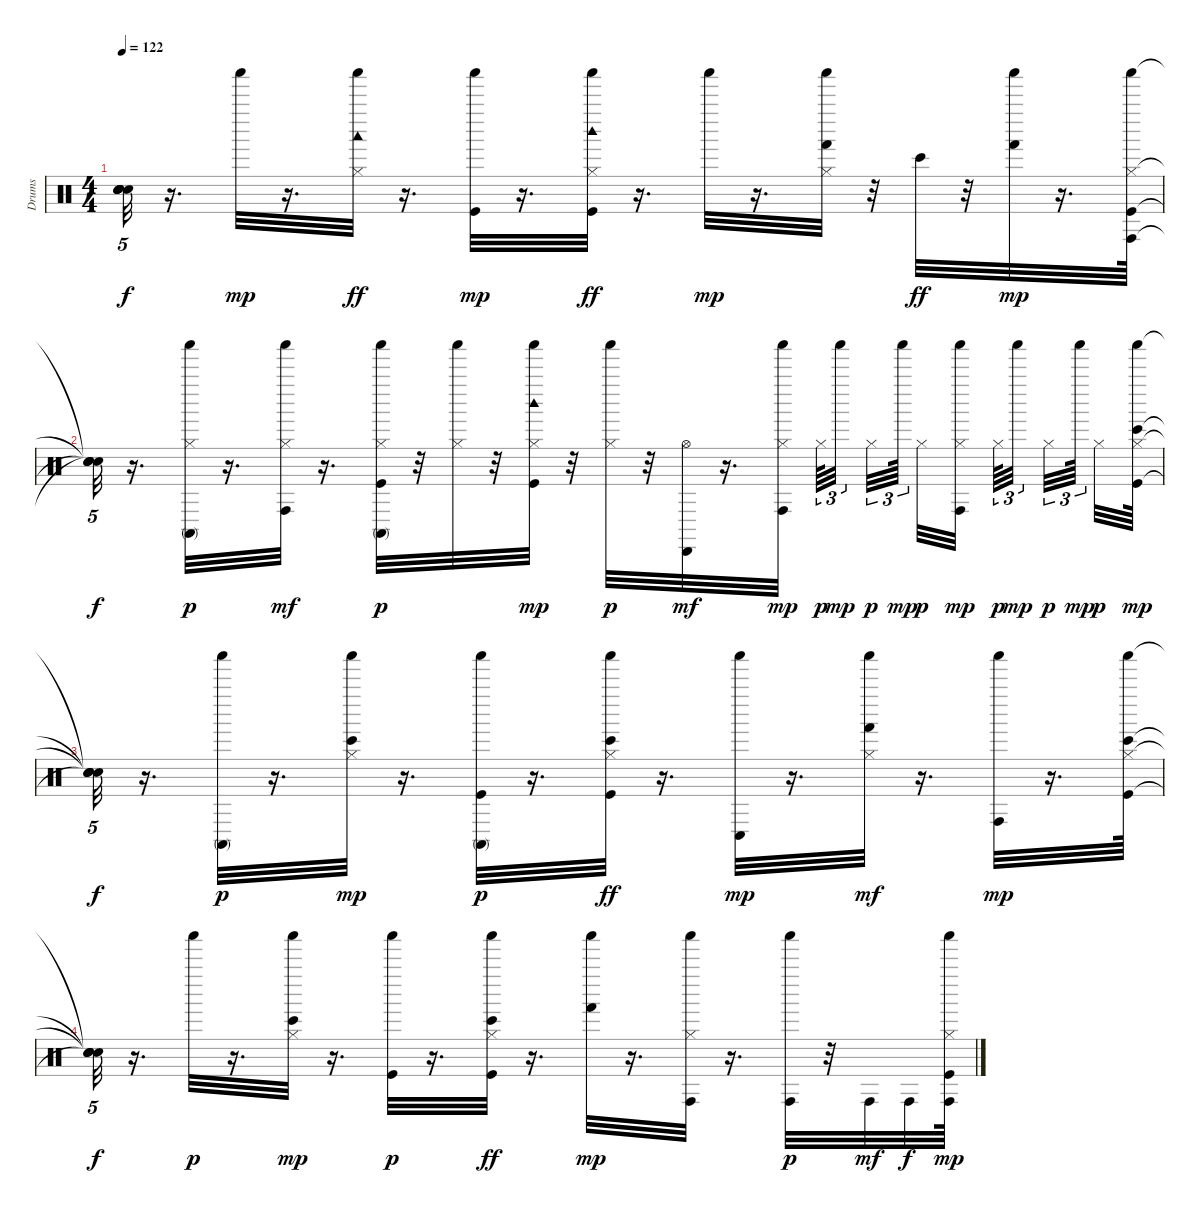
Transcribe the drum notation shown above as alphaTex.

\track ("Drums" "Drums") {instrument percussion}
\staff {score}
\articulation defaults
\ts (4 4)
\tempo 122
\clef neutral
\ks c
("Snare (hit)"{t} "Snare (hit)"{t} "Snare (hit)"{t} "Snare (hit)"{t} "Snare (hit)"{t}).32{tu (5 4) dy f} r.16{d} "Shaker (hit)".32{dy mp} r.16{d} ("Hi-Hat (closed)" "Shaker (hit)" "Woodblock low (hit)").32{dy ff} r.16{d} ("Shaker (hit)" "Kick (hit)").32{dy mp} r.16{d} ("Shaker (hit)" "Kick (hit)" "Hi-Hat (closed)" "Woodblock high (hit)").32{dy ff} r.16{d} "Shaker (hit)".32{dy mp} r.16{d} ("Hi-Hat (closed)" "Hand (hit)" "Shaker (hit)").32 r.32 "Bongo High (hit)".32{dy ff} r.32 ("Hand (hit)" "Shaker (hit)").32{dy mp} r.16{d} ("Kick (hit)" "Hi-Hat (closed)" "Conga high (hit)" "Shaker (hit)").64 |
("Snare (hit)"{t} "Snare (hit)"{t} "Snare (hit)"{t} "Snare (hit)"{t}).32{tu (5 4) dy f} r.16{d} ("Hi-Hat (closed)" "Conga high (mute)" "Shaker (hit)").32{dy p} r.16{d} ("Shaker (hit)" "Hi-Hat (closed)" "Conga high (hit)").32{dy mf} r.16{d} ("Kick (hit)" "Hi-Hat (closed)" "Conga high (mute)" "Shaker (hit)").32{dy p} r.32 ("Hi-Hat (closed)" "Shaker (hit)").32 r.32 ("Shaker (hit)" "Kick (hit)" "Hi-Hat (closed)" "Woodblock high (hit)").32{dy mp} r.32 ("Hi-Hat (closed)" "Shaker (hit)").32{dy p} r.32 ("Hi-Hat (open)" "Cabasa (hit)").32{dy mf} r.16{d} ("Hi-Hat (closed)" "Conga high (hit)" "Shaker (hit)").32{dy mp} "Hi-Hat (closed)".64{tu (3 2) dy p} "Shaker (hit)".32{tu (3 2) dy mp beam splitsecondary} "Hi-Hat (closed)".32{tu (3 2) dy p} "Shaker (hit)".64{tu (3 2) dy mp beam splitsecondary} "Hi-Hat (closed)".32{dy p} ("Hi-Hat (closed)" "Conga high (hit)" "Shaker (hit)").32{dy mp beam splitsecondary} "Hi-Hat (closed)".64{tu (3 2) dy p} "Shaker (hit)".32{tu (3 2) dy mp beam splitsecondary} "Hi-Hat (closed)".32{tu (3 2) dy p} "Shaker (hit)".64{tu (3 2) dy mp beam splitsecondary} "Hi-Hat (closed)".32{dy p} ("Kick (hit)" "Hi-Hat (closed)" "Bongo High (hit)" "Shaker (hit)").64{dy mp} |
("Snare (hit)"{t} "Snare (hit)"{t} "Snare (hit)"{t} "Snare (hit)"{t}).32{tu (5 4) dy f} r.16{d} ("Shaker (hit)" "Conga high (mute)").32{dy p} r.16{d} ("Shaker (hit)" "Hi-Hat (closed)" "Bongo High (hit)").32{dy mp} r.16{d} ("Shaker (hit)" "Kick (hit)" "Conga high (mute)").32{dy p} r.16{d} ("Shaker (hit)" "Kick (hit)" "Hi-Hat (closed)" "Bongo High (hit)").32{dy ff} r.16{d} ("Shaker (hit)" "Conga low (hit)").32{dy mp} r.16{d} ("Hi-Hat (closed)" "Shaker (hit)" "Hand (hit)").32{dy mf} r.16{d} ("Shaker (hit)" "Conga high (hit)").32{dy mp} r.16{d} ("Kick (hit)" "Hi-Hat (closed)" "Bongo High (hit)" "Shaker (hit)").64 |
("Snare (hit)"{t} "Snare (hit)"{t} "Snare (hit)"{t} "Snare (hit)"{t}).32{tu (5 4) dy f} r.16{d} "Shaker (hit)".32{dy p} r.16{d} ("Shaker (hit)" "Hi-Hat (closed)" "Bongo High (hit)").32{dy mp} r.16{d} ("Shaker (hit)" "Kick (hit)").32{dy p} r.16{d} ("Shaker (hit)" "Kick (hit)" "Hi-Hat (closed)" "Bongo High (hit)").32{dy ff} r.16{d} ("Shaker (hit)" "Hand (hit)").32{dy mp} r.16{d} ("Shaker (hit)" "Hi-Hat (closed)" "Conga high (hit)").32 r.16{d} ("Shaker (hit)" "Conga high (hit)").32{dy p} r.32 "Conga high (hit)".32{dy mf} "Conga high (hit)".32{dy f} ("Kick (hit)" "Hi-Hat (closed)" "Conga high (hit)" "Shaker (hit)").64{dy mp}
